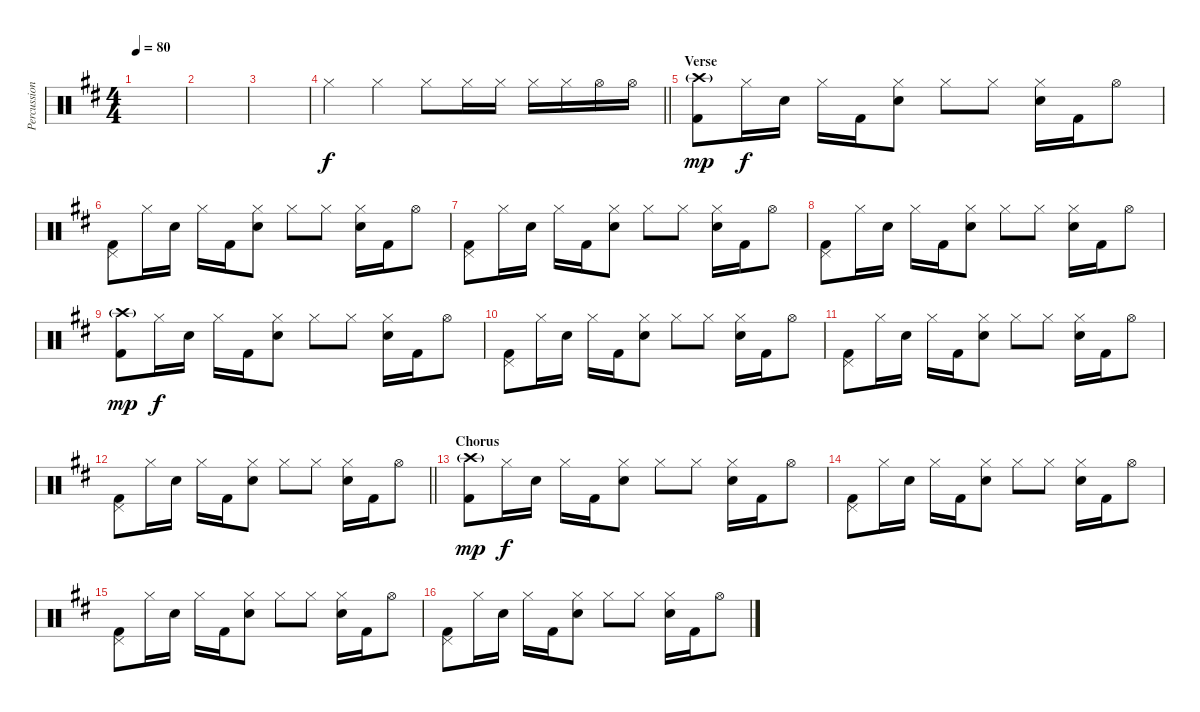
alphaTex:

\track ("Percussion" "Percussion") {instrument percussion}
\staff {score}
\articulation defaults
\ts (4 4)
\tempo 80
\clef neutral
\ks d
|
|
|
\barLineRight lightlight "Hi-Hat (closed)".4 "Hi-Hat (closed)".4 "Hi-Hat (closed)".8 "Hi-Hat (closed)".16 "Hi-Hat (closed)".16 "Hi-Hat (closed)".16 "Hi-Hat (closed)".16 "Hi-Hat (open)".16 "Hi-Hat (open)".16
|
\section ("" "Verse")
("Crash high (hit)"{g} "Kick (hit) 2").8{dy mp} "Hi-Hat (closed)".16{dy f} "Electric Snare (hit)".16 "Hi-Hat (closed)".16 "Kick (hit) 2".16 ("Hi-Hat (closed)" "Electric Snare (hit)").8 "Hi-Hat (closed)".8 "Hi-Hat (closed)".8 ("Hi-Hat (closed)" "Electric Snare (hit)").16 "Kick (hit) 2".16 "Hi-Hat (open)".8 |
("Pedal Hi-Hat (hit)" "Kick (hit) 2").8 "Hi-Hat (closed)".16 "Electric Snare (hit)".16 "Hi-Hat (closed)".16 "Kick (hit) 2".16 ("Hi-Hat (closed)" "Electric Snare (hit)").8 "Hi-Hat (closed)".8 "Hi-Hat (closed)".8 ("Hi-Hat (closed)" "Electric Snare (hit)").16 "Kick (hit) 2".16 "Hi-Hat (open)".8 |
("Pedal Hi-Hat (hit)" "Kick (hit) 2").8 "Hi-Hat (closed)".16 "Electric Snare (hit)".16 "Hi-Hat (closed)".16 "Kick (hit) 2".16 ("Hi-Hat (closed)" "Electric Snare (hit)").8 "Hi-Hat (closed)".8 "Hi-Hat (closed)".8 ("Hi-Hat (closed)" "Electric Snare (hit)").16 "Kick (hit) 2".16 "Hi-Hat (open)".8 |
("Pedal Hi-Hat (hit)" "Kick (hit) 2").8 "Hi-Hat (closed)".16 "Electric Snare (hit)".16 "Hi-Hat (closed)".16 "Kick (hit) 2".16 ("Hi-Hat (closed)" "Electric Snare (hit)").8 "Hi-Hat (closed)".8 "Hi-Hat (closed)".8 ("Hi-Hat (closed)" "Electric Snare (hit)").16 "Kick (hit) 2".16 "Hi-Hat (open)".8 |
("Crash high (hit)"{g} "Kick (hit) 2").8{dy mp} "Hi-Hat (closed)".16{dy f} "Electric Snare (hit)".16 "Hi-Hat (closed)".16 "Kick (hit) 2".16 ("Hi-Hat (closed)" "Electric Snare (hit)").8 "Hi-Hat (closed)".8 "Hi-Hat (closed)".8 ("Hi-Hat (closed)" "Electric Snare (hit)").16 "Kick (hit) 2".16 "Hi-Hat (open)".8 |
("Pedal Hi-Hat (hit)" "Kick (hit) 2").8 "Hi-Hat (closed)".16 "Electric Snare (hit)".16 "Hi-Hat (closed)".16 "Kick (hit) 2".16 ("Hi-Hat (closed)" "Electric Snare (hit)").8 "Hi-Hat (closed)".8 "Hi-Hat (closed)".8 ("Hi-Hat (closed)" "Electric Snare (hit)").16 "Kick (hit) 2".16 "Hi-Hat (open)".8 |
("Pedal Hi-Hat (hit)" "Kick (hit) 2").8 "Hi-Hat (closed)".16 "Electric Snare (hit)".16 "Hi-Hat (closed)".16 "Kick (hit) 2".16 ("Hi-Hat (closed)" "Electric Snare (hit)").8 "Hi-Hat (closed)".8 "Hi-Hat (closed)".8 ("Hi-Hat (closed)" "Electric Snare (hit)").16 "Kick (hit) 2".16 "Hi-Hat (open)".8 |
\barLineRight lightlight
("Pedal Hi-Hat (hit)" "Kick (hit) 2").8 "Hi-Hat (closed)".16 "Electric Snare (hit)".16 "Hi-Hat (closed)".16 "Kick (hit) 2".16 ("Hi-Hat (closed)" "Electric Snare (hit)").8 "Hi-Hat (closed)".8 "Hi-Hat (closed)".8 ("Hi-Hat (closed)" "Electric Snare (hit)").16 "Kick (hit) 2".16 "Hi-Hat (open)".8 |
\section ("" "Chorus")
("Crash high (hit)"{g} "Kick (hit) 2").8{dy mp} "Hi-Hat (closed)".16{dy f} "Electric Snare (hit)".16 "Hi-Hat (closed)".16 "Kick (hit) 2".16 ("Hi-Hat (closed)" "Electric Snare (hit)").8 "Hi-Hat (closed)".8 "Hi-Hat (closed)".8 ("Hi-Hat (closed)" "Electric Snare (hit)").16 "Kick (hit) 2".16 "Hi-Hat (open)".8 |
("Pedal Hi-Hat (hit)" "Kick (hit) 2").8 "Hi-Hat (closed)".16 "Electric Snare (hit)".16 "Hi-Hat (closed)".16 "Kick (hit) 2".16 ("Hi-Hat (closed)" "Electric Snare (hit)").8 "Hi-Hat (closed)".8 "Hi-Hat (closed)".8 ("Hi-Hat (closed)" "Electric Snare (hit)").16 "Kick (hit) 2".16 "Hi-Hat (open)".8 |
("Pedal Hi-Hat (hit)" "Kick (hit) 2").8 "Hi-Hat (closed)".16 "Electric Snare (hit)".16 "Hi-Hat (closed)".16 "Kick (hit) 2".16 ("Hi-Hat (closed)" "Electric Snare (hit)").8 "Hi-Hat (closed)".8 "Hi-Hat (closed)".8 ("Hi-Hat (closed)" "Electric Snare (hit)").16 "Kick (hit) 2".16 "Hi-Hat (open)".8 |
("Pedal Hi-Hat (hit)" "Kick (hit) 2").8 "Hi-Hat (closed)".16 "Electric Snare (hit)".16 "Hi-Hat (closed)".16 "Kick (hit) 2".16 ("Hi-Hat (closed)" "Electric Snare (hit)").8 "Hi-Hat (closed)".8 "Hi-Hat (closed)".8 ("Hi-Hat (closed)" "Electric Snare (hit)").16 "Kick (hit) 2".16 "Hi-Hat (open)".8
